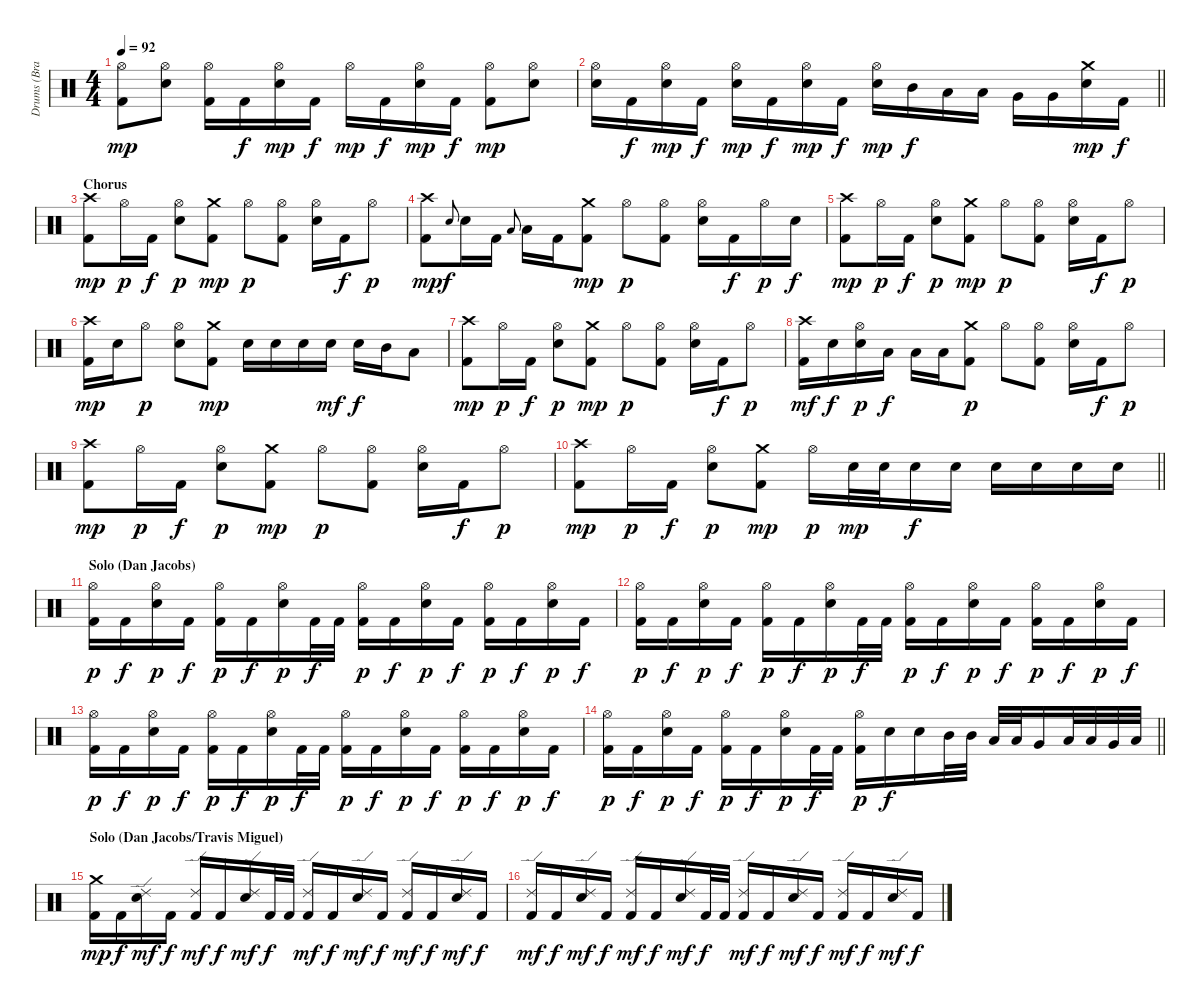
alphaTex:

\track ("Drums (Brandon Saller)" "Drums (Bra") {instrument percussion}
\staff {score}
\articulation defaults
\ts (4 4)
\tempo 92
\clef neutral
\ks c
("Hi-Hat (open)" "Kick (hit) 2").8{dy mp} ("Hi-Hat (open)" "Electric Snare (hit)").8 ("Hi-Hat (open)" "Kick (hit) 2").16 "Kick (hit) 2".16{dy f} ("Hi-Hat (open)" "Electric Snare (hit)").16{dy mp} "Kick (hit) 2".16{dy f} "Hi-Hat (open)".16{dy mp} "Kick (hit) 2".16{dy f} ("Hi-Hat (open)" "Electric Snare (hit)").16{dy mp} "Kick (hit) 2".16{dy f} ("Hi-Hat (open)" "Kick (hit) 2").8{dy mp} ("Hi-Hat (open)" "Electric Snare (hit)").8 |
\barLineRight lightlight
("Hi-Hat (open)" "Electric Snare (hit)").16 "Kick (hit) 2".16{dy f} ("Hi-Hat (open)" "Electric Snare (hit)").16{dy mp} "Kick (hit) 2".16{dy f} ("Hi-Hat (open)" "Electric Snare (hit)").16{dy mp} "Kick (hit) 2".16{dy f} ("Hi-Hat (open)" "Electric Snare (hit)").16{dy mp} "Kick (hit) 2".16{dy f} ("Hi-Hat (open)" "Electric Snare (hit)").16{dy mp} "Mid Tom (hit)".16{dy f} "Low Tom (hit)".16 "Low Tom (hit)".16 "Very Low Tom (hit)".16 "Very Low Tom (hit)".16 ("Crash medium (hit)" "Electric Snare (hit)").16{dy mp} "Kick (hit) 2".16{dy f} |
\section ("" "Chorus")
("Crash high (hit)" "Kick (hit) 2").8{dy mp} "Hi-Hat (open)".16{dy p} "Kick (hit) 2".16{dy f} ("Hi-Hat (open)" "Electric Snare (hit)").8{dy p} ("Crash medium (hit)" "Kick (hit) 2").8{dy mp} "Hi-Hat (open)".8{dy p} ("Hi-Hat (open)" "Kick (hit) 2").8 ("Hi-Hat (open)" "Electric Snare (hit)").16 "Kick (hit) 2".16{dy f} "Hi-Hat (open)".8{dy p} |
("Crash high (hit)" "Kick (hit) 2").8{dy mp} "Electric Snare (hit)"{h}.8{gr onbeat dy f} "Electric Snare (hit)".16 "Kick (hit) 2".16 "Low Tom (hit)".8{gr onbeat} "Low Tom (hit)".16 "Kick (hit) 2".16 ("Crash medium (hit)" "Kick (hit) 2").8{dy mp} "Hi-Hat (open)".8{dy p} ("Hi-Hat (open)" "Kick (hit) 2").8 ("Hi-Hat (open)" "Electric Snare (hit)").16 "Kick (hit) 2".16{dy f} "Hi-Hat (open)".16{dy p} "Electric Snare (hit)".16{dy f} |
("Crash high (hit)" "Kick (hit) 2").8{dy mp} "Hi-Hat (open)".16{dy p} "Kick (hit) 2".16{dy f} ("Hi-Hat (open)" "Electric Snare (hit)").8{dy p} ("Crash medium (hit)" "Kick (hit) 2").8{dy mp} "Hi-Hat (open)".8{dy p} ("Hi-Hat (open)" "Kick (hit) 2").8 ("Hi-Hat (open)" "Electric Snare (hit)").16 "Kick (hit) 2".16{dy f} "Hi-Hat (open)".8{dy p} |
("Crash high (hit)" "Kick (hit) 2").16{dy mp} "Electric Snare (hit)".16 "Hi-Hat (open)".8{dy p} ("Hi-Hat (open)" "Electric Snare (hit)").8 ("Crash medium (hit)" "Kick (hit) 2").8{dy mp} "Electric Snare (hit)".16 "Electric Snare (hit)".16 "Electric Snare (hit)".16 "Electric Snare (hit)".16{dy mf} "Electric Snare (hit)".16{dy f} "Mid Tom (hit)".16 "Low Tom (hit)".8 |
("Crash high (hit)" "Kick (hit) 2").8{dy mp} "Hi-Hat (open)".16{dy p} "Kick (hit) 2".16{dy f} ("Hi-Hat (open)" "Electric Snare (hit)").8{dy p} ("Crash medium (hit)" "Kick (hit) 2").8{dy mp} "Hi-Hat (open)".8{dy p} ("Hi-Hat (open)" "Kick (hit) 2").8 ("Hi-Hat (open)" "Electric Snare (hit)").16 "Kick (hit) 2".16{dy f} "Hi-Hat (open)".8{dy p} |
("Crash high (hit)" "Kick (hit) 2").16{dy mf} "Electric Snare (hit)".16{dy f} ("Hi-Hat (open)" "Electric Snare (hit)").16{dy p} "Low Tom (hit)".16{dy f} "Low Tom (hit)".16 "Low Tom (hit)".16 ("Crash medium (hit)" "Kick (hit) 2").8{dy p} "Hi-Hat (open)".8 ("Hi-Hat (open)" "Kick (hit) 2").8 ("Hi-Hat (open)" "Electric Snare (hit)").16 "Kick (hit) 2".16{dy f} "Hi-Hat (open)".8{dy p} |
("Crash high (hit)" "Kick (hit) 2").8{dy mp} "Hi-Hat (open)".16{dy p} "Kick (hit) 2".16{dy f} ("Hi-Hat (open)" "Electric Snare (hit)").8{dy p} ("Crash medium (hit)" "Kick (hit) 2").8{dy mp} "Hi-Hat (open)".8{dy p} ("Hi-Hat (open)" "Kick (hit) 2").8 ("Hi-Hat (open)" "Electric Snare (hit)").16 "Kick (hit) 2".16{dy f} "Hi-Hat (open)".8{dy p} |
\barLineRight lightlight
("Crash high (hit)" "Kick (hit) 2").8{dy mp} "Hi-Hat (open)".16{dy p} "Kick (hit) 2".16{dy f} ("Hi-Hat (open)" "Electric Snare (hit)").8{dy p} ("Crash medium (hit)" "Kick (hit) 2").8{dy mp} "Hi-Hat (open)".16{dy p} "Electric Snare (hit)".32{dy mp} "Electric Snare (hit)".32 "Electric Snare (hit)".16{dy f} "Electric Snare (hit)".16 "Electric Snare (hit)".16 "Electric Snare (hit)".16 "Electric Snare (hit)".16 "Electric Snare (hit)".16 |
\section ("" "Solo (Dan Jacobs)")
("Hi-Hat (open)" "Kick (hit) 2").16{dy p} "Kick (hit) 2".16{dy f} ("Hi-Hat (open)" "Electric Snare (hit)").16{dy p} "Kick (hit) 2".16{dy f} ("Hi-Hat (open)" "Kick (hit) 2").16{dy p} "Kick (hit) 2".16{dy f} ("Hi-Hat (open)" "Electric Snare (hit)").16{dy p} "Kick (hit) 2".32{dy f} "Kick (hit) 2".32 ("Hi-Hat (open)" "Kick (hit) 2").16{dy p} "Kick (hit) 2".16{dy f} ("Hi-Hat (open)" "Electric Snare (hit)").16{dy p} "Kick (hit) 2".16{dy f} ("Hi-Hat (open)" "Kick (hit) 2").16{dy p} "Kick (hit) 2".16{dy f} ("Hi-Hat (open)" "Electric Snare (hit)").16{dy p} "Kick (hit) 2".16{dy f} |
("Hi-Hat (open)" "Kick (hit) 2").16{dy p} "Kick (hit) 2".16{dy f} ("Hi-Hat (open)" "Electric Snare (hit)").16{dy p} "Kick (hit) 2".16{dy f} ("Hi-Hat (open)" "Kick (hit) 2").16{dy p} "Kick (hit) 2".16{dy f} ("Hi-Hat (open)" "Electric Snare (hit)").16{dy p} "Kick (hit) 2".32{dy f} "Kick (hit) 2".32 ("Hi-Hat (open)" "Kick (hit) 2").16{dy p} "Kick (hit) 2".16{dy f} ("Hi-Hat (open)" "Electric Snare (hit)").16{dy p} "Kick (hit) 2".16{dy f} ("Hi-Hat (open)" "Kick (hit) 2").16{dy p} "Kick (hit) 2".16{dy f} ("Hi-Hat (open)" "Electric Snare (hit)").16{dy p} "Kick (hit) 2".16{dy f} |
("Hi-Hat (open)" "Kick (hit) 2").16{dy p} "Kick (hit) 2".16{dy f} ("Hi-Hat (open)" "Electric Snare (hit)").16{dy p} "Kick (hit) 2".16{dy f} ("Hi-Hat (open)" "Kick (hit) 2").16{dy p} "Kick (hit) 2".16{dy f} ("Hi-Hat (open)" "Electric Snare (hit)").16{dy p} "Kick (hit) 2".32{dy f} "Kick (hit) 2".32 ("Hi-Hat (open)" "Kick (hit) 2").16{dy p} "Kick (hit) 2".16{dy f} ("Hi-Hat (open)" "Electric Snare (hit)").16{dy p} "Kick (hit) 2".16{dy f} ("Hi-Hat (open)" "Kick (hit) 2").16{dy p} "Kick (hit) 2".16{dy f} ("Hi-Hat (open)" "Electric Snare (hit)").16{dy p} "Kick (hit) 2".16{dy f} |
\barLineRight lightlight
("Hi-Hat (open)" "Kick (hit) 2").16{dy p} "Kick (hit) 2".16{dy f} ("Hi-Hat (open)" "Electric Snare (hit)").16{dy p} "Kick (hit) 2".16{dy f} ("Hi-Hat (open)" "Kick (hit) 2").16{dy p} "Kick (hit) 2".16{dy f} ("Hi-Hat (open)" "Electric Snare (hit)").16{dy p} "Kick (hit) 2".32{dy f} "Kick (hit) 2".32 ("Hi-Hat (open)" "Kick (hit) 2").16{dy p} "Electric Snare (hit)".16{dy f} "Electric Snare (hit)".16 "Mid Tom (hit)".32 "Mid Tom (hit)".32 "Low Tom (hit)".32 "Low Tom (hit)".32 "Very Low Tom (hit)".16 "Low Tom (hit)".32 "Low Tom (hit)".32 "Very Low Tom (hit)".32 "Low Floor Tom (hit)".32 |
\section ("" "Solo (Dan Jacobs/Travis Miguel)")
("Crash medium (hit)" "Kick (hit) 2").16{dy mp} "Kick (hit) 2".16{dy f} ("Ride (edge) 2" "Electric Snare (hit)").16{dy mf} "Kick (hit) 2".16{dy f} ("Ride (edge) 2" "Kick (hit) 2").16{dy mf} "Kick (hit) 2".16{dy f} ("Ride (edge) 2" "Electric Snare (hit)").16{dy mf} "Kick (hit) 2".32{dy f} "Kick (hit) 2".32 ("Ride (edge) 2" "Kick (hit) 2").16{dy mf} "Kick (hit) 2".16{dy f} ("Ride (edge) 2" "Electric Snare (hit)").16{dy mf} "Kick (hit) 2".16{dy f} ("Ride (edge) 2" "Kick (hit) 2").16{dy mf} "Kick (hit) 2".16{dy f} ("Ride (edge) 2" "Electric Snare (hit)").16{dy mf} "Kick (hit) 2".16{dy f} |
("Ride (edge) 2" "Kick (hit) 2").16{dy mf} "Kick (hit) 2".16{dy f} ("Ride (edge) 2" "Electric Snare (hit)").16{dy mf} "Kick (hit) 2".16{dy f} ("Ride (edge) 2" "Kick (hit) 2").16{dy mf} "Kick (hit) 2".16{dy f} ("Ride (edge) 2" "Electric Snare (hit)").16{dy mf} "Kick (hit) 2".32{dy f} "Kick (hit) 2".32 ("Ride (edge) 2" "Kick (hit) 2").16{dy mf} "Kick (hit) 2".16{dy f} ("Ride (edge) 2" "Electric Snare (hit)").16{dy mf} "Kick (hit) 2".16{dy f} ("Ride (edge) 2" "Kick (hit) 2").16{dy mf} "Kick (hit) 2".16{dy f} ("Ride (edge) 2" "Electric Snare (hit)").16{dy mf} "Kick (hit) 2".16{dy f}
